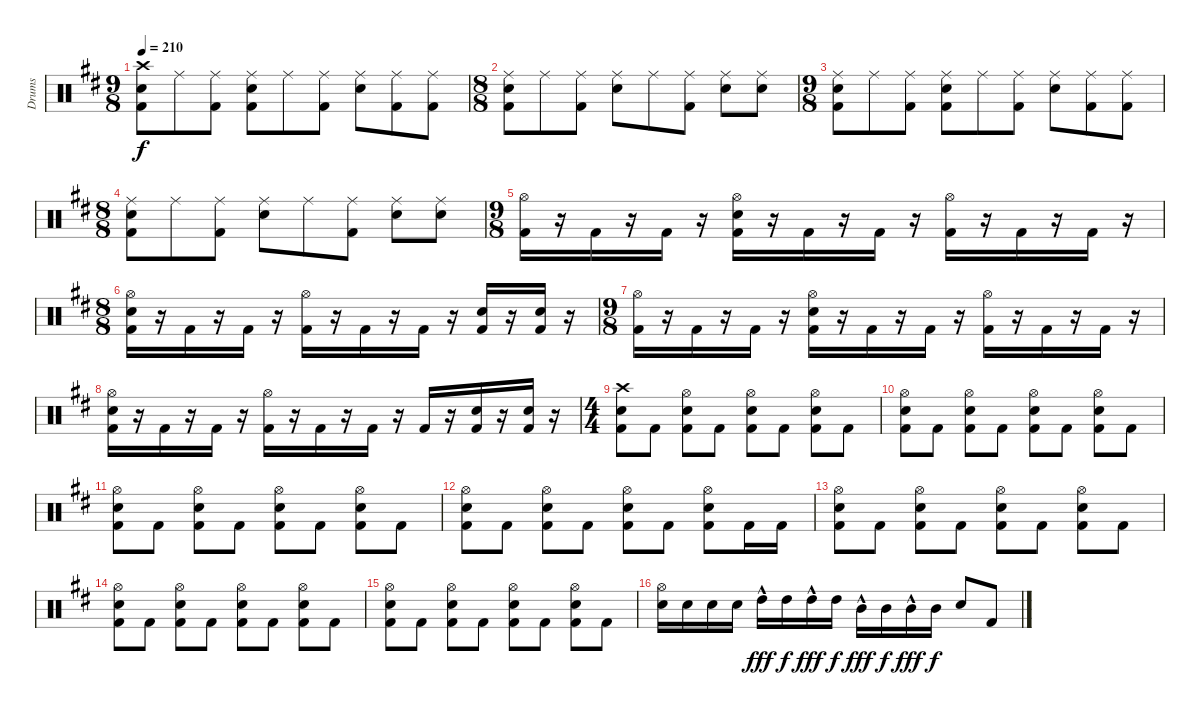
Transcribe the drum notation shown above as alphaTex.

\track ("Drums" "Drums") {instrument percussion}
\staff {score}
\articulation defaults
\ts (9 8)
\tempo 210
\clef neutral
\ks bminor
("Kick (hit) 2" "Electric Snare (hit)" "Crash high (hit)").8{dy f} "Ride (middle)".8 ("Kick (hit) 2" "Ride (middle)").8 ("Kick (hit) 2" "Electric Snare (hit)" "Ride (middle)").8 "Ride (middle)".8 ("Kick (hit) 2" "Ride (middle)").8 ("Electric Snare (hit)" "Ride (middle)").8 ("Kick (hit) 2" "Ride (middle)").8 ("Kick (hit) 2" "Ride (middle)").8 |
\ts (8 8)
("Kick (hit) 2" "Electric Snare (hit)" "Ride (middle)").8 "Ride (middle)".8 ("Kick (hit) 2" "Ride (middle)").8 ("Electric Snare (hit)" "Ride (middle)").8 "Ride (middle)".8 ("Kick (hit) 2" "Ride (middle)").8 ("Electric Snare (hit)" "Ride (middle)").8 ("Electric Snare (hit)" "Ride (middle)").8 |
\ts (9 8)
("Kick (hit) 2" "Electric Snare (hit)" "Ride (middle)").8 "Ride (middle)".8 ("Kick (hit) 2" "Ride (middle)").8 ("Kick (hit) 2" "Electric Snare (hit)" "Ride (middle)").8 "Ride (middle)".8 ("Kick (hit) 2" "Ride (middle)").8 ("Electric Snare (hit)" "Ride (middle)").8 ("Kick (hit) 2" "Ride (middle)").8 ("Kick (hit) 2" "Ride (middle)").8 |
\ts (8 8)
("Kick (hit) 2" "Electric Snare (hit)" "Ride (middle)").8 "Ride (middle)".8 ("Kick (hit) 2" "Ride (middle)").8 ("Electric Snare (hit)" "Ride (middle)").8 "Ride (middle)".8 ("Kick (hit) 2" "Ride (middle)").8 ("Electric Snare (hit)" "Ride (middle)").8 ("Electric Snare (hit)" "Ride (middle)").8 |
\ts (9 8)
("Kick (hit) 2" "Hi-Hat (open)").16 r.16 "Kick (hit) 2".16 r.16 "Kick (hit) 2".16 r.16 ("Kick (hit) 2" "Electric Snare (hit)" "Hi-Hat (open)").16 r.16 "Kick (hit) 2".16 r.16 "Kick (hit) 2".16 r.16 ("Kick (hit) 2" "Hi-Hat (open)").16 r.16 "Kick (hit) 2".16 r.16 "Kick (hit) 2".16 r.16 |
\ts (8 8)
("Kick (hit) 2" "Electric Snare (hit)" "Hi-Hat (open)").16 r.16 "Kick (hit) 2".16 r.16 "Kick (hit) 2".16 r.16 ("Kick (hit) 2" "Hi-Hat (open)").16 r.16 "Kick (hit) 2".16 r.16 "Kick (hit) 2".16 r.16 ("Kick (hit) 2" "Electric Snare (hit)").16 r.16 ("Kick (hit) 2" "Electric Snare (hit)").16 r.16 |
\ts (9 8)
("Kick (hit) 2" "Hi-Hat (open)").16 r.16 "Kick (hit) 2".16 r.16 "Kick (hit) 2".16 r.16 ("Kick (hit) 2" "Electric Snare (hit)" "Hi-Hat (open)").16 r.16 "Kick (hit) 2".16 r.16 "Kick (hit) 2".16 r.16 ("Kick (hit) 2" "Hi-Hat (open)").16 r.16 "Kick (hit) 2".16 r.16 "Kick (hit) 2".16 r.16 |
("Kick (hit) 2" "Electric Snare (hit)" "Hi-Hat (open)").16 r.16 "Kick (hit) 2".16 r.16 "Kick (hit) 2".16 r.16 ("Kick (hit) 2" "Hi-Hat (open)").16 r.16 "Kick (hit) 2".16 r.16 "Kick (hit) 2".16 r.16 "Kick (hit) 2".16 r.16 ("Kick (hit) 2" "Electric Snare (hit)").16 r.16 ("Kick (hit) 2" "Electric Snare (hit)").16 r.16 |
\ts (4 4)
("Kick (hit) 2" "Electric Snare (hit)" "Crash high (hit)").8 "Kick (hit) 2".8 ("Kick (hit) 2" "Electric Snare (hit)" "Hi-Hat (open)").8 "Kick (hit) 2".8 ("Kick (hit) 2" "Electric Snare (hit)" "Hi-Hat (open)").8 "Kick (hit) 2".8 ("Kick (hit) 2" "Electric Snare (hit)" "Hi-Hat (open)").8 "Kick (hit) 2".8 |
("Kick (hit) 2" "Electric Snare (hit)" "Hi-Hat (open)").8 "Kick (hit) 2".8 ("Kick (hit) 2" "Electric Snare (hit)" "Hi-Hat (open)").8 "Kick (hit) 2".8 ("Kick (hit) 2" "Electric Snare (hit)" "Hi-Hat (open)").8 "Kick (hit) 2".8 ("Kick (hit) 2" "Electric Snare (hit)" "Hi-Hat (open)").8 "Kick (hit) 2".8 |
("Kick (hit) 2" "Electric Snare (hit)" "Hi-Hat (open)").8 "Kick (hit) 2".8 ("Kick (hit) 2" "Electric Snare (hit)" "Hi-Hat (open)").8 "Kick (hit) 2".8 ("Kick (hit) 2" "Electric Snare (hit)" "Hi-Hat (open)").8 "Kick (hit) 2".8 ("Kick (hit) 2" "Electric Snare (hit)" "Hi-Hat (open)").8 "Kick (hit) 2".8 |
("Kick (hit) 2" "Electric Snare (hit)" "Hi-Hat (open)").8 "Kick (hit) 2".8 ("Kick (hit) 2" "Electric Snare (hit)" "Hi-Hat (open)").8 "Kick (hit) 2".8 ("Kick (hit) 2" "Electric Snare (hit)" "Hi-Hat (open)").8 "Kick (hit) 2".8 ("Kick (hit) 2" "Electric Snare (hit)" "Hi-Hat (open)").8 "Kick (hit) 2".16 "Kick (hit) 2".16 |
("Kick (hit) 2" "Electric Snare (hit)" "Hi-Hat (open)").8 "Kick (hit) 2".8 ("Kick (hit) 2" "Electric Snare (hit)" "Hi-Hat (open)").8 "Kick (hit) 2".8 ("Kick (hit) 2" "Electric Snare (hit)" "Hi-Hat (open)").8 "Kick (hit) 2".8 ("Kick (hit) 2" "Electric Snare (hit)" "Hi-Hat (open)").8 "Kick (hit) 2".8 |
("Kick (hit) 2" "Electric Snare (hit)" "Hi-Hat (open)").8 "Kick (hit) 2".8 ("Kick (hit) 2" "Electric Snare (hit)" "Hi-Hat (open)").8 "Kick (hit) 2".8 ("Kick (hit) 2" "Electric Snare (hit)" "Hi-Hat (open)").8 "Kick (hit) 2".8 ("Kick (hit) 2" "Electric Snare (hit)" "Hi-Hat (open)").8 "Kick (hit) 2".8 |
("Kick (hit) 2" "Electric Snare (hit)" "Hi-Hat (open)").8 "Kick (hit) 2".8 ("Kick (hit) 2" "Electric Snare (hit)" "Hi-Hat (open)").8 "Kick (hit) 2".8 ("Kick (hit) 2" "Electric Snare (hit)" "Hi-Hat (open)").8 "Kick (hit) 2".8 ("Kick (hit) 2" "Electric Snare (hit)" "Hi-Hat (open)").8 "Kick (hit) 2".8 |
("Electric Snare (hit)" "Hi-Hat (open)").16 "Electric Snare (hit)".16 "Electric Snare (hit)".16 "Electric Snare (hit)".16 "High Tom (hit)"{hac}.16{dy fff} "High Tom (hit)".16{dy f} "High Tom (hit)"{hac}.16{dy fff} "High Tom (hit)".16{dy f} "Mid Tom (hit)"{hac}.16{dy fff} "Mid Tom (hit)".16{dy f} "Mid Tom (hit)"{hac}.16{dy fff} "Mid Tom (hit)".16{dy f} "Electric Snare (hit)".8 "Kick (hit) 2".8
